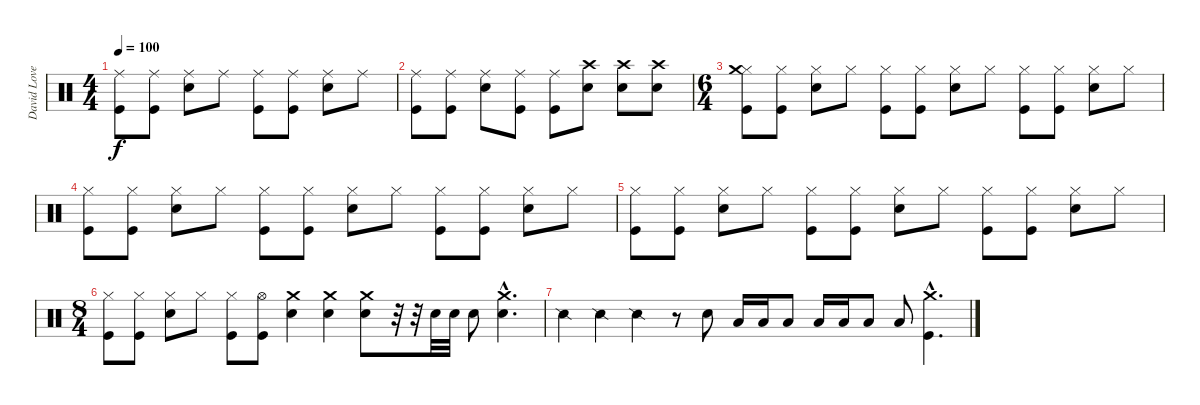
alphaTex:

\track ("David Lovering" "David Love") {instrument percussion}
\staff {score}
\articulation defaults
\ts (4 4)
\tempo 100
\clef neutral
\ks c
("Ride (middle)" "Kick (hit)").8{dy f} ("Ride (middle)" "Kick (hit)").8 ("Ride (middle)" "Snare (hit) 2").8 "Ride (middle)".8 ("Ride (middle)" "Kick (hit)").8 ("Ride (middle)" "Kick (hit)").8 ("Ride (middle)" "Snare (hit) 2").8 "Ride (middle)".8 |
("Ride (middle)" "Kick (hit)").8 ("Ride (middle)" "Kick (hit)").8 ("Ride (middle)" "Snare (hit) 2").8 ("Ride (middle)" "Kick (hit)").8 ("Ride (middle)" "Kick (hit)").8 ("Crash high (hit)" "Snare (hit) 2").8 ("Crash high (hit)" "Snare (hit) 2").8 ("Crash high (hit)" "Snare (hit) 2").8 |
\ts (6 4)
\section ("" "")
("Hi-Hat (closed)" "Crash medium (hit)" "Kick (hit)").8 ("Hi-Hat (closed)" "Kick (hit)").8 ("Hi-Hat (closed)" "Snare (hit) 2").8 "Hi-Hat (closed)".8 ("Hi-Hat (closed)" "Kick (hit)").8 ("Hi-Hat (closed)" "Kick (hit)").8 ("Hi-Hat (closed)" "Snare (hit) 2").8 "Hi-Hat (closed)".8 ("Hi-Hat (closed)" "Kick (hit)").8 ("Hi-Hat (closed)" "Kick (hit)").8 ("Hi-Hat (closed)" "Snare (hit) 2").8 "Hi-Hat (closed)".8 |
("Hi-Hat (closed)" "Kick (hit)").8 ("Hi-Hat (closed)" "Kick (hit)").8 ("Hi-Hat (closed)" "Snare (hit) 2").8 "Hi-Hat (closed)".8 ("Hi-Hat (closed)" "Kick (hit)").8 ("Hi-Hat (closed)" "Kick (hit)").8 ("Hi-Hat (closed)" "Snare (hit) 2").8 "Hi-Hat (closed)".8 ("Hi-Hat (closed)" "Kick (hit)").8 ("Hi-Hat (closed)" "Kick (hit)").8 ("Hi-Hat (closed)" "Snare (hit) 2").8 "Hi-Hat (closed)".8 |
("Hi-Hat (closed)" "Kick (hit)").8 ("Hi-Hat (closed)" "Kick (hit)").8 ("Hi-Hat (closed)" "Snare (hit) 2").8 "Hi-Hat (closed)".8 ("Hi-Hat (closed)" "Kick (hit)").8 ("Hi-Hat (closed)" "Kick (hit)").8 ("Hi-Hat (closed)" "Snare (hit) 2").8 "Hi-Hat (closed)".8 ("Hi-Hat (closed)" "Kick (hit)").8 ("Hi-Hat (closed)" "Kick (hit)").8 ("Hi-Hat (closed)" "Snare (hit) 2").8 "Hi-Hat (closed)".8 |
\ts (8 4)
("Hi-Hat (closed)" "Kick (hit)").8 ("Hi-Hat (closed)" "Kick (hit)").8 ("Hi-Hat (closed)" "Snare (hit) 2").8 "Hi-Hat (closed)".8 ("Hi-Hat (closed)" "Kick (hit)").8 ("Hi-Hat (open)" "Kick (hit)").8 ("Crash medium (hit)" "Snare (hit) 2").4 ("Crash medium (hit)" "Snare (hit) 2").4 ("Crash medium (hit)" "Snare (hit) 2").8 r.32 r.32 "Snare (hit) 2".32 "Snare (hit) 2".32 "Snare (hit) 2".8 ("Crash medium (hit)"{hac} "Snare (hit) 2"{hac}).4{d} |
"Snare (side stick) 2".4 "Snare (side stick) 2".4 "Snare (side stick) 2".4 r.8 "Snare (hit) 2".8 "Low Floor Tom (hit)".16 "Low Floor Tom (hit)".16 "Low Floor Tom (hit)".8 "Low Floor Tom (hit)".16 "Low Floor Tom (hit)".16 "Low Floor Tom (hit)".8 "Low Floor Tom (hit)".8 ("Crash medium (hit)"{hac} "Kick (hit)"{hac}).4{d}
